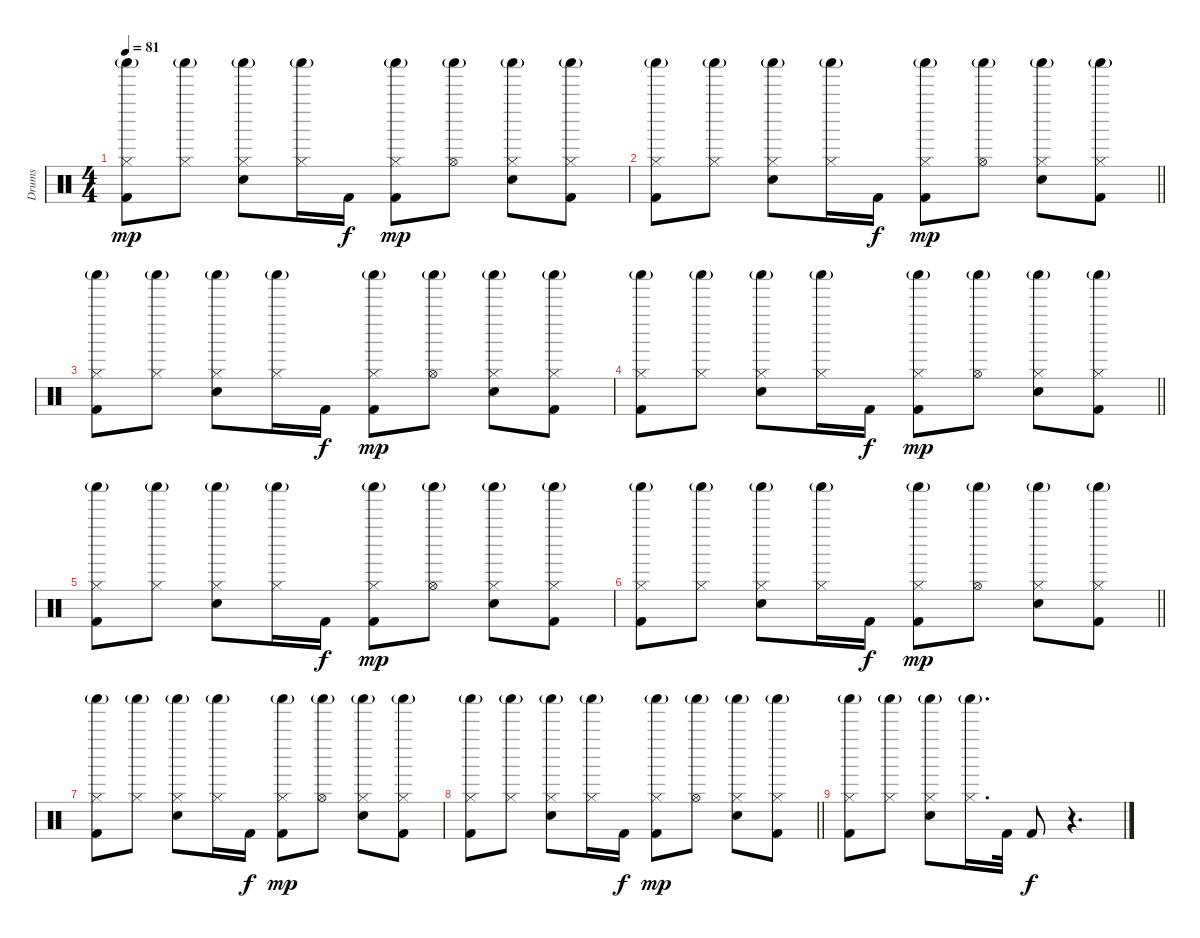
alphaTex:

\track ("Drums" "Drums") {instrument percussion}
\staff {score}
\articulation defaults
\ts (4 4)
\tempo 81
\clef neutral
\ks c
("Hi-Hat (closed)" "Shaker (hit)"{g} "Kick (hit) 2").8{dy mp} ("Hi-Hat (closed)" "Shaker (hit)"{g}).8 ("Hi-Hat (closed)" "Shaker (hit)"{g} "Snare (hit) 2").8 ("Hi-Hat (closed)" "Shaker (hit)"{g}).16 "Kick (hit) 2".16{dy f} ("Hi-Hat (closed)" "Shaker (hit)"{g} "Kick (hit) 2").8{dy mp} ("Hi-Hat (open)" "Shaker (hit)"{g}).8 ("Hi-Hat (closed)" "Shaker (hit)"{g} "Snare (hit) 2").8 ("Hi-Hat (closed)" "Shaker (hit)"{g} "Kick (hit) 2").8 |
\barLineRight lightlight
("Hi-Hat (closed)" "Shaker (hit)"{g} "Kick (hit) 2").8 ("Hi-Hat (closed)" "Shaker (hit)"{g}).8 ("Hi-Hat (closed)" "Shaker (hit)"{g} "Snare (hit) 2").8 ("Hi-Hat (closed)" "Shaker (hit)"{g}).16 "Kick (hit) 2".16{dy f} ("Hi-Hat (closed)" "Shaker (hit)"{g} "Kick (hit) 2").8{dy mp} ("Hi-Hat (open)" "Shaker (hit)"{g}).8 ("Hi-Hat (closed)" "Shaker (hit)"{g} "Snare (hit) 2").8 ("Hi-Hat (closed)" "Shaker (hit)"{g} "Kick (hit) 2").8 |
("Hi-Hat (closed)" "Shaker (hit)"{g} "Kick (hit) 2").8 ("Hi-Hat (closed)" "Shaker (hit)"{g}).8 ("Hi-Hat (closed)" "Shaker (hit)"{g} "Snare (hit) 2").8 ("Hi-Hat (closed)" "Shaker (hit)"{g}).16 "Kick (hit) 2".16{dy f} ("Hi-Hat (closed)" "Shaker (hit)"{g} "Kick (hit) 2").8{dy mp} ("Hi-Hat (open)" "Shaker (hit)"{g}).8 ("Hi-Hat (closed)" "Shaker (hit)"{g} "Snare (hit) 2").8 ("Hi-Hat (closed)" "Shaker (hit)"{g} "Kick (hit) 2").8 |
\barLineRight lightlight
("Hi-Hat (closed)" "Shaker (hit)"{g} "Kick (hit) 2").8 ("Hi-Hat (closed)" "Shaker (hit)"{g}).8 ("Hi-Hat (closed)" "Shaker (hit)"{g} "Snare (hit) 2").8 ("Hi-Hat (closed)" "Shaker (hit)"{g}).16 "Kick (hit) 2".16{dy f} ("Hi-Hat (closed)" "Shaker (hit)"{g} "Kick (hit) 2").8{dy mp} ("Hi-Hat (open)" "Shaker (hit)"{g}).8 ("Hi-Hat (closed)" "Shaker (hit)"{g} "Snare (hit) 2").8 ("Hi-Hat (closed)" "Shaker (hit)"{g} "Kick (hit) 2").8 |
("Hi-Hat (closed)" "Shaker (hit)"{g} "Kick (hit) 2").8 ("Hi-Hat (closed)" "Shaker (hit)"{g}).8 ("Hi-Hat (closed)" "Shaker (hit)"{g} "Snare (hit) 2").8 ("Hi-Hat (closed)" "Shaker (hit)"{g}).16 "Kick (hit) 2".16{dy f} ("Hi-Hat (closed)" "Shaker (hit)"{g} "Kick (hit) 2").8{dy mp} ("Hi-Hat (open)" "Shaker (hit)"{g}).8 ("Hi-Hat (closed)" "Shaker (hit)"{g} "Snare (hit) 2").8 ("Hi-Hat (closed)" "Shaker (hit)"{g} "Kick (hit) 2").8 |
\barLineRight lightlight
("Hi-Hat (closed)" "Shaker (hit)"{g} "Kick (hit) 2").8 ("Hi-Hat (closed)" "Shaker (hit)"{g}).8 ("Hi-Hat (closed)" "Shaker (hit)"{g} "Snare (hit) 2").8 ("Hi-Hat (closed)" "Shaker (hit)"{g}).16 "Kick (hit) 2".16{dy f} ("Hi-Hat (closed)" "Shaker (hit)"{g} "Kick (hit) 2").8{dy mp} ("Hi-Hat (open)" "Shaker (hit)"{g}).8 ("Hi-Hat (closed)" "Shaker (hit)"{g} "Snare (hit) 2").8 ("Hi-Hat (closed)" "Shaker (hit)"{g} "Kick (hit) 2").8 |
("Hi-Hat (closed)" "Shaker (hit)"{g} "Kick (hit) 2").8 ("Hi-Hat (closed)" "Shaker (hit)"{g}).8 ("Hi-Hat (closed)" "Shaker (hit)"{g} "Snare (hit) 2").8 ("Hi-Hat (closed)" "Shaker (hit)"{g}).16 "Kick (hit) 2".16{dy f} ("Hi-Hat (closed)" "Shaker (hit)"{g} "Kick (hit) 2").8{dy mp} ("Hi-Hat (open)" "Shaker (hit)"{g}).8 ("Hi-Hat (closed)" "Shaker (hit)"{g} "Snare (hit) 2").8 ("Hi-Hat (closed)" "Shaker (hit)"{g} "Kick (hit) 2").8 |
\barLineRight lightlight
("Hi-Hat (closed)" "Shaker (hit)"{g} "Kick (hit) 2").8 ("Hi-Hat (closed)" "Shaker (hit)"{g}).8 ("Hi-Hat (closed)" "Shaker (hit)"{g} "Snare (hit) 2").8 ("Hi-Hat (closed)" "Shaker (hit)"{g}).16 "Kick (hit) 2".16{dy f} ("Hi-Hat (closed)" "Shaker (hit)"{g} "Kick (hit) 2").8{dy mp} ("Hi-Hat (open)" "Shaker (hit)"{g}).8 ("Hi-Hat (closed)" "Shaker (hit)"{g} "Snare (hit) 2").8 ("Hi-Hat (closed)" "Shaker (hit)"{g} "Kick (hit) 2").8 |
("Hi-Hat (closed)" "Shaker (hit)"{g} "Kick (hit) 2").8 ("Hi-Hat (closed)" "Shaker (hit)"{g}).8 ("Hi-Hat (closed)" "Shaker (hit)"{g} "Snare (hit) 2").8 ("Hi-Hat (closed)" "Shaker (hit)"{g}).16{d} "Kick (hit) 2".32 "Kick (hit) 2".8{dy f} r.4{d}
